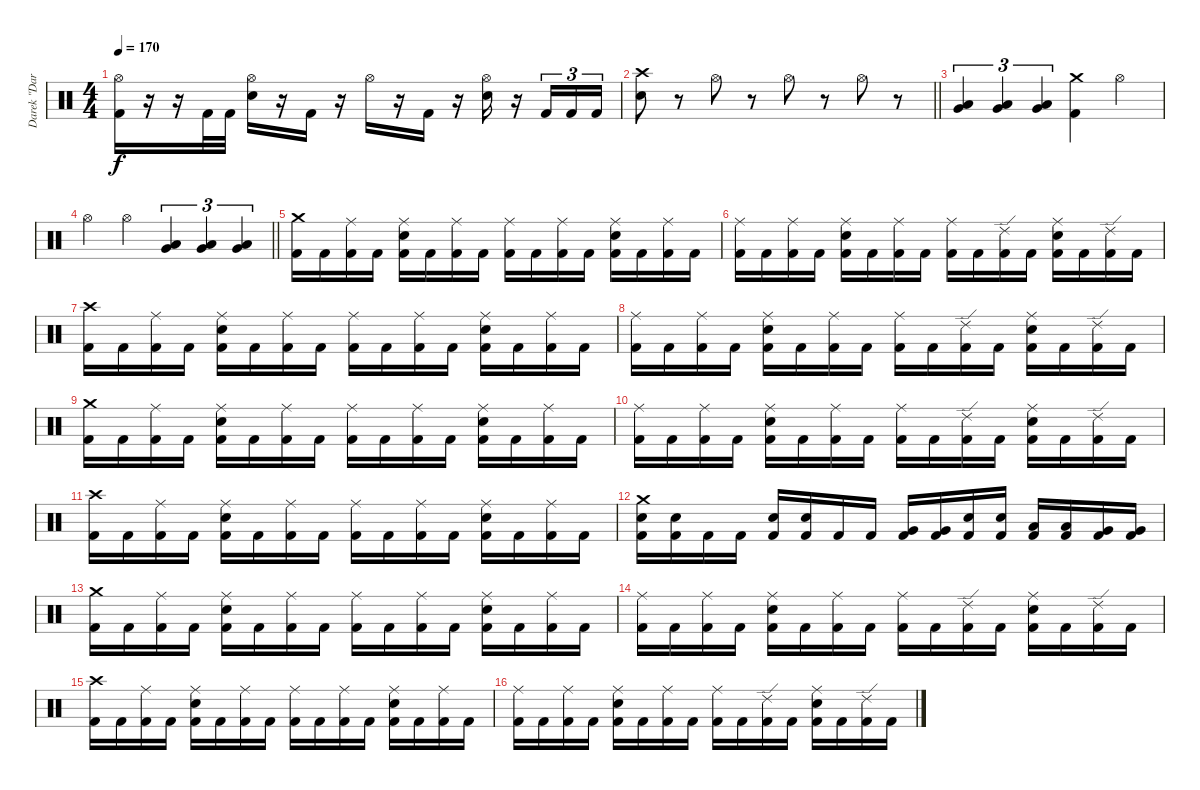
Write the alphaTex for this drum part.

\track ("Darek \"Daray\" Brzozowski " "Darek \"Dar") {instrument percussion}
\staff {score}
\articulation defaults
\ts (4 4)
\tempo 170
\clef neutral
\ks c
("Hi-Hat (open)" "Kick (hit) 2").16{dy f} r.16 r.16 "Kick (hit) 2".32 "Kick (hit) 2".32 ("Hi-Hat (open)" "Electric Snare (hit)").16 r.16 "Kick (hit) 2".16 r.16 "Hi-Hat (open)".16 r.16 "Kick (hit) 2".16 r.16 ("Hi-Hat (open)" "Electric Snare (hit)").16 r.16 "Kick (hit) 2".16{tu (3 2)} "Kick (hit) 2".16{tu (3 2)} "Kick (hit) 2".16{tu (3 2)} |
\barLineRight lightlight
("Crash high (hit)" "Electric Snare (hit)").8 r.8 "Hi-Hat (open)".8 r.8 "Hi-Hat (open)".8 r.8 "Hi-Hat (open)".8 r.8 |
("Very Low Tom (hit)" "Low Floor Tom (hit)").4{tu (3 2)} ("Low Tom (hit)" "Very Low Tom (hit)").4{tu (3 2)} ("Very Low Tom (hit)" "Low Floor Tom (hit)").4{tu (3 2)} ("Crash medium (hit)" "Kick (hit) 2").4 "Hi-Hat (open)".4 |
\barLineRight lightlight "Hi-Hat (open)".4 "Hi-Hat (open)".4
("Very Low Tom (hit)" "Low Floor Tom (hit)").4{tu (3 2)} ("Low Tom (hit)" "Very Low Tom (hit)").4{tu (3 2)} ("Very Low Tom (hit)" "Low Floor Tom (hit)").4{tu (3 2)} |
("Crash medium (hit)" "Kick (hit) 2").16 "Kick (hit) 2".16 ("Ride (middle)" "Kick (hit) 2").16 "Kick (hit) 2".16 ("Ride (middle)" "Electric Snare (hit)" "Kick (hit) 2").16 "Kick (hit) 2".16 ("Ride (middle)" "Kick (hit) 2").16 "Kick (hit) 2".16 ("Ride (middle)" "Kick (hit) 2").16 "Kick (hit) 2".16 ("Ride (middle)" "Kick (hit) 2").16 "Kick (hit) 2".16 ("Ride (middle)" "Electric Snare (hit)" "Kick (hit) 2").16 "Kick (hit) 2".16 ("Ride (middle)" "Kick (hit) 2").16 "Kick (hit) 2".16 |
("Ride (middle)" "Kick (hit) 2").16 "Kick (hit) 2".16 ("Ride (middle)" "Kick (hit) 2").16 "Kick (hit) 2".16 ("Ride (middle)" "Electric Snare (hit)" "Kick (hit) 2").16 "Kick (hit) 2".16 ("Ride (middle)" "Kick (hit) 2").16 "Kick (hit) 2".16 ("Ride (middle)" "Kick (hit) 2").16 "Kick (hit) 2".16 ("Ride (edge) 2" "Kick (hit) 2").16 "Kick (hit) 2".16 ("Ride (middle)" "Electric Snare (hit)" "Kick (hit) 2").16 "Kick (hit) 2".16 ("Ride (edge) 2" "Kick (hit) 2").16 "Kick (hit) 2".16 |
("Crash high (hit)" "Kick (hit) 2").16 "Kick (hit) 2".16 ("Ride (middle)" "Kick (hit) 2").16 "Kick (hit) 2".16 ("Ride (middle)" "Electric Snare (hit)" "Kick (hit) 2").16 "Kick (hit) 2".16 ("Ride (middle)" "Kick (hit) 2").16 "Kick (hit) 2".16 ("Ride (middle)" "Kick (hit) 2").16 "Kick (hit) 2".16 ("Ride (middle)" "Kick (hit) 2").16 "Kick (hit) 2".16 ("Ride (middle)" "Electric Snare (hit)" "Kick (hit) 2").16 "Kick (hit) 2".16 ("Ride (middle)" "Kick (hit) 2").16 "Kick (hit) 2".16 |
("Ride (middle)" "Kick (hit) 2").16 "Kick (hit) 2".16 ("Ride (middle)" "Kick (hit) 2").16 "Kick (hit) 2".16 ("Ride (middle)" "Electric Snare (hit)" "Kick (hit) 2").16 "Kick (hit) 2".16 ("Ride (middle)" "Kick (hit) 2").16 "Kick (hit) 2".16 ("Ride (middle)" "Kick (hit) 2").16 "Kick (hit) 2".16 ("Ride (edge) 2" "Kick (hit) 2").16 "Kick (hit) 2".16 ("Ride (middle)" "Electric Snare (hit)" "Kick (hit) 2").16 "Kick (hit) 2".16 ("Ride (edge) 2" "Kick (hit) 2").16 "Kick (hit) 2".16 |
("Crash medium (hit)" "Kick (hit) 2").16 "Kick (hit) 2".16 ("Ride (middle)" "Kick (hit) 2").16 "Kick (hit) 2".16 ("Ride (middle)" "Electric Snare (hit)" "Kick (hit) 2").16 "Kick (hit) 2".16 ("Ride (middle)" "Kick (hit) 2").16 "Kick (hit) 2".16 ("Ride (middle)" "Kick (hit) 2").16 "Kick (hit) 2".16 ("Ride (middle)" "Kick (hit) 2").16 "Kick (hit) 2".16 ("Ride (middle)" "Electric Snare (hit)" "Kick (hit) 2").16 "Kick (hit) 2".16 ("Ride (middle)" "Kick (hit) 2").16 "Kick (hit) 2".16 |
("Ride (middle)" "Kick (hit) 2").16 "Kick (hit) 2".16 ("Ride (middle)" "Kick (hit) 2").16 "Kick (hit) 2".16 ("Ride (middle)" "Electric Snare (hit)" "Kick (hit) 2").16 "Kick (hit) 2".16 ("Ride (middle)" "Kick (hit) 2").16 "Kick (hit) 2".16 ("Ride (middle)" "Kick (hit) 2").16 "Kick (hit) 2".16 ("Ride (edge) 2" "Kick (hit) 2").16 "Kick (hit) 2".16 ("Ride (middle)" "Electric Snare (hit)" "Kick (hit) 2").16 "Kick (hit) 2".16 ("Ride (edge) 2" "Kick (hit) 2").16 "Kick (hit) 2".16 |
("Crash high (hit)" "Kick (hit) 2").16 "Kick (hit) 2".16 ("Ride (middle)" "Kick (hit) 2").16 "Kick (hit) 2".16 ("Ride (middle)" "Electric Snare (hit)" "Kick (hit) 2").16 "Kick (hit) 2".16 ("Ride (middle)" "Kick (hit) 2").16 "Kick (hit) 2".16 ("Ride (middle)" "Kick (hit) 2").16 "Kick (hit) 2".16 ("Ride (middle)" "Kick (hit) 2").16 "Kick (hit) 2".16 ("Ride (middle)" "Electric Snare (hit)" "Kick (hit) 2").16 "Kick (hit) 2".16 ("Ride (middle)" "Kick (hit) 2").16 "Kick (hit) 2".16 |
("Crash medium (hit)" "Electric Snare (hit)" "Kick (hit) 2").16 ("Electric Snare (hit)" "Kick (hit) 2").16 "Kick (hit) 2".16 "Kick (hit) 2".16 ("Electric Snare (hit)" "Kick (hit) 2").16 ("Electric Snare (hit)" "Kick (hit) 2").16 "Kick (hit) 2".16 "Kick (hit) 2".16 ("Very Low Tom (hit)" "Kick (hit) 2").16 ("Very Low Tom (hit)" "Kick (hit) 2").16 ("Electric Snare (hit)" "Kick (hit) 2").16 ("Electric Snare (hit)" "Kick (hit) 2").16 ("Low Tom (hit)" "Kick (hit) 2").16 ("Low Tom (hit)" "Kick (hit) 2").16 ("Very Low Tom (hit)" "Kick (hit) 2").16 ("Very Low Tom (hit)" "Kick (hit) 2").16 |
("Crash medium (hit)" "Kick (hit) 2").16 "Kick (hit) 2".16 ("Ride (middle)" "Kick (hit) 2").16 "Kick (hit) 2".16 ("Ride (middle)" "Electric Snare (hit)" "Kick (hit) 2").16 "Kick (hit) 2".16 ("Ride (middle)" "Kick (hit) 2").16 "Kick (hit) 2".16 ("Ride (middle)" "Kick (hit) 2").16 "Kick (hit) 2".16 ("Ride (middle)" "Kick (hit) 2").16 "Kick (hit) 2".16 ("Ride (middle)" "Electric Snare (hit)" "Kick (hit) 2").16 "Kick (hit) 2".16 ("Ride (middle)" "Kick (hit) 2").16 "Kick (hit) 2".16 |
("Ride (middle)" "Kick (hit) 2").16 "Kick (hit) 2".16 ("Ride (middle)" "Kick (hit) 2").16 "Kick (hit) 2".16 ("Ride (middle)" "Electric Snare (hit)" "Kick (hit) 2").16 "Kick (hit) 2".16 ("Ride (middle)" "Kick (hit) 2").16 "Kick (hit) 2".16 ("Ride (middle)" "Kick (hit) 2").16 "Kick (hit) 2".16 ("Ride (edge) 2" "Kick (hit) 2").16 "Kick (hit) 2".16 ("Ride (middle)" "Electric Snare (hit)" "Kick (hit) 2").16 "Kick (hit) 2".16 ("Ride (edge) 2" "Kick (hit) 2").16 "Kick (hit) 2".16 |
("Crash high (hit)" "Kick (hit) 2").16 "Kick (hit) 2".16 ("Ride (middle)" "Kick (hit) 2").16 "Kick (hit) 2".16 ("Ride (middle)" "Electric Snare (hit)" "Kick (hit) 2").16 "Kick (hit) 2".16 ("Ride (middle)" "Kick (hit) 2").16 "Kick (hit) 2".16 ("Ride (middle)" "Kick (hit) 2").16 "Kick (hit) 2".16 ("Ride (middle)" "Kick (hit) 2").16 "Kick (hit) 2".16 ("Ride (middle)" "Electric Snare (hit)" "Kick (hit) 2").16 "Kick (hit) 2".16 ("Ride (middle)" "Kick (hit) 2").16 "Kick (hit) 2".16 |
("Ride (middle)" "Kick (hit) 2").16 "Kick (hit) 2".16 ("Ride (middle)" "Kick (hit) 2").16 "Kick (hit) 2".16 ("Ride (middle)" "Electric Snare (hit)" "Kick (hit) 2").16 "Kick (hit) 2".16 ("Ride (middle)" "Kick (hit) 2").16 "Kick (hit) 2".16 ("Ride (middle)" "Kick (hit) 2").16 "Kick (hit) 2".16 ("Ride (edge) 2" "Kick (hit) 2").16 "Kick (hit) 2".16 ("Ride (middle)" "Electric Snare (hit)" "Kick (hit) 2").16 "Kick (hit) 2".16 ("Ride (edge) 2" "Kick (hit) 2").16 "Kick (hit) 2".16
